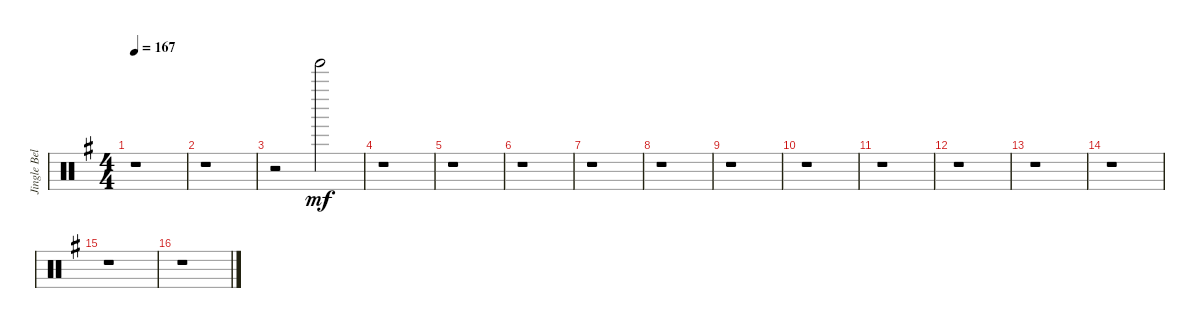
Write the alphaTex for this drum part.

\track ("Jingle Bell" "Jingle Bel") {instrument percussion}
\staff {score}
\articulation defaults
\ts (4 4)
\tempo 167
\clef neutral
\ks eminor
r.1{dy mf} |
r.1 |
r.2 "Tinkle Bell (hit)".2 |
r.1 |
r.1 |
r.1 |
r.1 |
r.1 |
r.1 |
r.1 |
r.1 |
r.1 |
r.1 |
r.1 |
r.1 |
r.1
